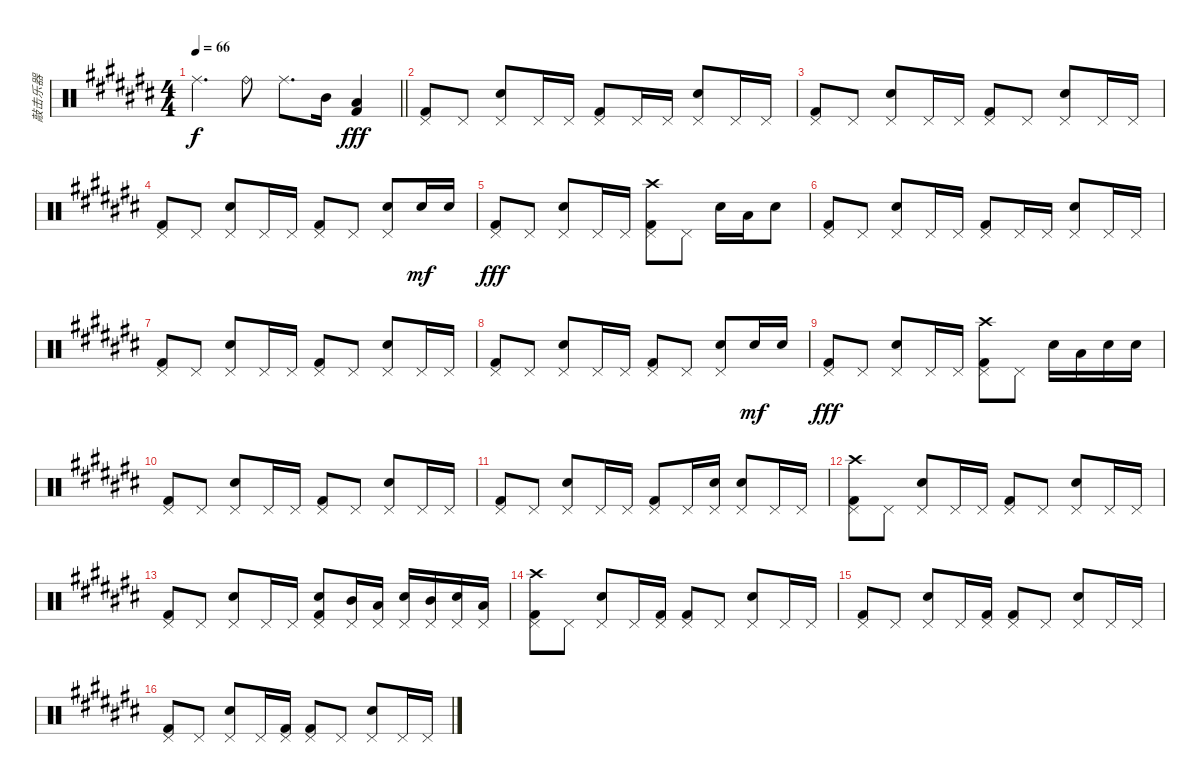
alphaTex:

\track ("敲击乐器" "敲击乐器") {instrument percussion}
\staff {score}
\articulation defaults
\ts (4 4)
\tempo 66
\clef neutral
\barLineRight lightlight
\ks c# "Ride (middle)".4{d dy f} "Ride (bell)".8 "Ride (middle)".8{d} "Mid Tom (hit)".16
("Low Floor Tom (hit)" "Kick (hit) 2").4{dy fff} |
("Pedal Hi-Hat (hit)" "Kick (hit) 2").8 "Pedal Hi-Hat (hit)".8 ("Pedal Hi-Hat (hit)" "Snare (hit) 2").8 "Pedal Hi-Hat (hit)".16 "Pedal Hi-Hat (hit)".16 ("Pedal Hi-Hat (hit)" "Kick (hit) 2").8 "Pedal Hi-Hat (hit)".16 "Pedal Hi-Hat (hit)".16 ("Pedal Hi-Hat (hit)" "Snare (hit) 2").8 "Pedal Hi-Hat (hit)".16 "Pedal Hi-Hat (hit)".16 |
("Pedal Hi-Hat (hit)" "Kick (hit) 2").8 "Pedal Hi-Hat (hit)".8 ("Pedal Hi-Hat (hit)" "Snare (hit) 2").8 "Pedal Hi-Hat (hit)".16 "Pedal Hi-Hat (hit)".16 ("Pedal Hi-Hat (hit)" "Kick (hit) 2").8 "Pedal Hi-Hat (hit)".8 ("Pedal Hi-Hat (hit)" "Snare (hit) 2").8 "Pedal Hi-Hat (hit)".16 "Pedal Hi-Hat (hit)".16 |
("Pedal Hi-Hat (hit)" "Kick (hit) 2").8 "Pedal Hi-Hat (hit)".8 ("Pedal Hi-Hat (hit)" "Snare (hit) 2").8 "Pedal Hi-Hat (hit)".16 "Pedal Hi-Hat (hit)".16 ("Pedal Hi-Hat (hit)" "Kick (hit) 2").8 "Pedal Hi-Hat (hit)".8 ("Pedal Hi-Hat (hit)" "Snare (hit) 2").8 "Hand Clap (hit)".16{dy mf} "Hand Clap (hit)".16 |
("Pedal Hi-Hat (hit)" "Kick (hit) 2").8{dy fff} "Pedal Hi-Hat (hit)".8 ("Pedal Hi-Hat (hit)" "Snare (hit) 2").8 "Pedal Hi-Hat (hit)".16 "Pedal Hi-Hat (hit)".16 ("Crash high (hit)" "Pedal Hi-Hat (hit)" "Kick (hit) 2").8 "Pedal Hi-Hat (hit)".8 "Snare (hit) 2".16 "Low Tom (hit)".16 "Snare (hit) 2".8 |
("Pedal Hi-Hat (hit)" "Kick (hit) 2").8 "Pedal Hi-Hat (hit)".8 ("Pedal Hi-Hat (hit)" "Snare (hit) 2").8 "Pedal Hi-Hat (hit)".16 "Pedal Hi-Hat (hit)".16 ("Pedal Hi-Hat (hit)" "Kick (hit) 2").8 "Pedal Hi-Hat (hit)".16 "Pedal Hi-Hat (hit)".16 ("Pedal Hi-Hat (hit)" "Snare (hit) 2").8 "Pedal Hi-Hat (hit)".16 "Pedal Hi-Hat (hit)".16 |
("Pedal Hi-Hat (hit)" "Kick (hit) 2").8 "Pedal Hi-Hat (hit)".8 ("Pedal Hi-Hat (hit)" "Snare (hit) 2").8 "Pedal Hi-Hat (hit)".16 "Pedal Hi-Hat (hit)".16 ("Pedal Hi-Hat (hit)" "Kick (hit) 2").8 "Pedal Hi-Hat (hit)".8 ("Pedal Hi-Hat (hit)" "Snare (hit) 2").8 "Pedal Hi-Hat (hit)".16 "Pedal Hi-Hat (hit)".16 |
("Pedal Hi-Hat (hit)" "Kick (hit) 2").8 "Pedal Hi-Hat (hit)".8 ("Pedal Hi-Hat (hit)" "Snare (hit) 2").8 "Pedal Hi-Hat (hit)".16 "Pedal Hi-Hat (hit)".16 ("Pedal Hi-Hat (hit)" "Kick (hit) 2").8 "Pedal Hi-Hat (hit)".8 ("Pedal Hi-Hat (hit)" "Snare (hit) 2").8 "Hand Clap (hit)".16{dy mf} "Hand Clap (hit)".16 |
("Pedal Hi-Hat (hit)" "Kick (hit) 2").8{dy fff} "Pedal Hi-Hat (hit)".8 ("Pedal Hi-Hat (hit)" "Snare (hit) 2").8 "Pedal Hi-Hat (hit)".16 "Pedal Hi-Hat (hit)".16 ("Crash high (hit)" "Pedal Hi-Hat (hit)" "Kick (hit) 2").8 "Pedal Hi-Hat (hit)".8 "Snare (hit) 2".16 "Low Tom (hit)".16 "Snare (hit) 2".16 "Snare (hit) 2".16 |
("Pedal Hi-Hat (hit)" "Kick (hit) 2").8 "Pedal Hi-Hat (hit)".8 ("Pedal Hi-Hat (hit)" "Snare (hit) 2").8 "Pedal Hi-Hat (hit)".16 "Pedal Hi-Hat (hit)".16 ("Pedal Hi-Hat (hit)" "Kick (hit) 2").8 "Pedal Hi-Hat (hit)".8 ("Pedal Hi-Hat (hit)" "Snare (hit) 2").8 "Pedal Hi-Hat (hit)".16 "Pedal Hi-Hat (hit)".16 |
("Pedal Hi-Hat (hit)" "Kick (hit) 2").8 "Pedal Hi-Hat (hit)".8 ("Pedal Hi-Hat (hit)" "Snare (hit) 2").8 "Pedal Hi-Hat (hit)".16 "Pedal Hi-Hat (hit)".16 ("Pedal Hi-Hat (hit)" "Kick (hit) 2").8 "Pedal Hi-Hat (hit)".16 ("Pedal Hi-Hat (hit)" "Snare (hit) 2").16 ("Pedal Hi-Hat (hit)" "Snare (hit) 2").8 "Pedal Hi-Hat (hit)".16 "Pedal Hi-Hat (hit)".16 |
("Crash high (hit)" "Pedal Hi-Hat (hit)" "Kick (hit) 2").8 "Pedal Hi-Hat (hit)".8 ("Pedal Hi-Hat (hit)" "Snare (hit) 2").8 "Pedal Hi-Hat (hit)".16 "Pedal Hi-Hat (hit)".16 ("Pedal Hi-Hat (hit)" "Kick (hit) 2").8 "Pedal Hi-Hat (hit)".8 ("Pedal Hi-Hat (hit)" "Snare (hit) 2").8 "Pedal Hi-Hat (hit)".16 "Pedal Hi-Hat (hit)".16 |
("Pedal Hi-Hat (hit)" "Kick (hit) 2").8 "Pedal Hi-Hat (hit)".8 ("Pedal Hi-Hat (hit)" "Snare (hit) 2").8 "Pedal Hi-Hat (hit)".16 "Pedal Hi-Hat (hit)".16 ("Pedal Hi-Hat (hit)" "Snare (hit) 2" "Kick (hit) 2").8 ("Pedal Hi-Hat (hit)" "Mid Tom (hit)").16 ("Pedal Hi-Hat (hit)" "Low Tom (hit)").16 ("Pedal Hi-Hat (hit)" "Snare (hit) 2").16 ("Pedal Hi-Hat (hit)" "Mid Tom (hit)").16 ("Pedal Hi-Hat (hit)" "Snare (hit) 2").16 ("Pedal Hi-Hat (hit)" "Low Tom (hit)").16 |
("Crash high (hit)" "Pedal Hi-Hat (hit)" "Kick (hit) 2").8 "Pedal Hi-Hat (hit)".8 ("Pedal Hi-Hat (hit)" "Snare (hit) 2").8 "Pedal Hi-Hat (hit)".16 ("Pedal Hi-Hat (hit)" "Kick (hit) 2").16 ("Pedal Hi-Hat (hit)" "Kick (hit) 2").8 "Pedal Hi-Hat (hit)".8 ("Pedal Hi-Hat (hit)" "Snare (hit) 2").8 "Pedal Hi-Hat (hit)".16 "Pedal Hi-Hat (hit)".16 |
("Pedal Hi-Hat (hit)" "Kick (hit) 2").8 "Pedal Hi-Hat (hit)".8 ("Pedal Hi-Hat (hit)" "Snare (hit) 2").8 "Pedal Hi-Hat (hit)".16 ("Pedal Hi-Hat (hit)" "Kick (hit) 2").16 ("Pedal Hi-Hat (hit)" "Kick (hit) 2").8 "Pedal Hi-Hat (hit)".8 ("Pedal Hi-Hat (hit)" "Snare (hit) 2").8 "Pedal Hi-Hat (hit)".16 "Pedal Hi-Hat (hit)".16 |
("Pedal Hi-Hat (hit)" "Kick (hit) 2").8 "Pedal Hi-Hat (hit)".8 ("Pedal Hi-Hat (hit)" "Snare (hit) 2").8 "Pedal Hi-Hat (hit)".16 ("Pedal Hi-Hat (hit)" "Kick (hit) 2").16 ("Pedal Hi-Hat (hit)" "Kick (hit) 2").8 "Pedal Hi-Hat (hit)".8 ("Pedal Hi-Hat (hit)" "Snare (hit) 2").8 "Pedal Hi-Hat (hit)".16 "Pedal Hi-Hat (hit)".16
